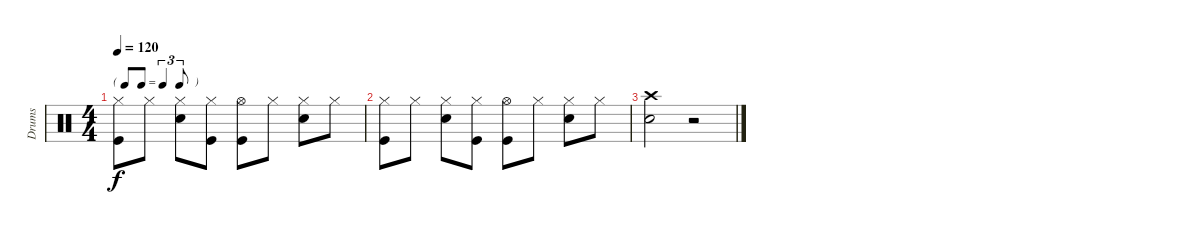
\track ("Drums" "Drums") {instrument percussion}
\staff {score}
\articulation defaults
\ts (4 4)
\tf triplet8th
\tempo 120
\clef neutral
\ks c
("Hi-Hat (closed)" "Kick (hit)").8{dy f} "Hi-Hat (closed)".8 ("Hi-Hat (closed)" "Snare (hit) 2").8 ("Hi-Hat (closed)" "Kick (hit)").8 ("Hi-Hat (open)" "Kick (hit)").8 "Hi-Hat (closed)".8 ("Hi-Hat (closed)" "Snare (hit) 2").8 "Hi-Hat (closed)".8 |
("Hi-Hat (closed)" "Kick (hit)").8 "Hi-Hat (closed)".8 ("Hi-Hat (closed)" "Snare (hit) 2").8 ("Hi-Hat (closed)" "Kick (hit)").8 ("Hi-Hat (open)" "Kick (hit)").8 "Hi-Hat (closed)".8 ("Hi-Hat (closed)" "Snare (hit) 2").8 "Hi-Hat (closed)".8 |
("Crash high (hit)" "Electric Snare (hit)").2 r.2
